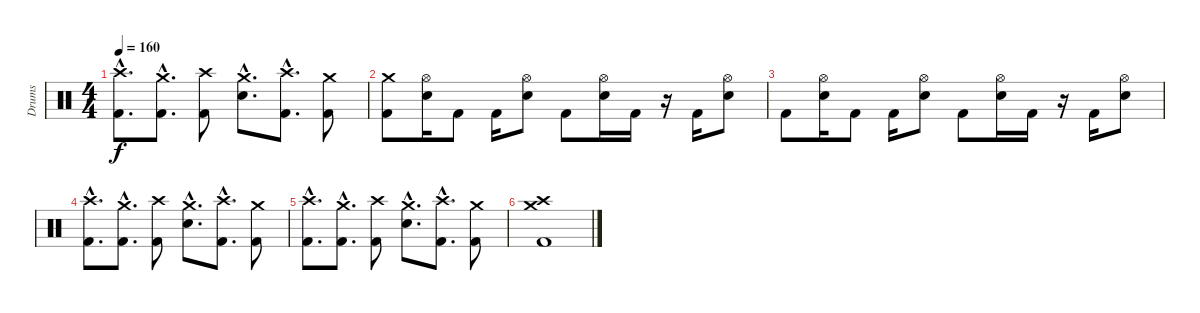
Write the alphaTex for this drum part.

\track ("Drums" "Drums") {instrument percussion}
\staff {score}
\articulation defaults
\ts (4 4)
\tempo 160
\clef neutral
\ks c
("Kick (hit) 2"{hac} "Crash high (hit)"{hac}).8{d dy f} ("Kick (hit) 2"{hac} "Crash medium (hit)"{hac}).8{d} ("Kick (hit) 2" "Crash high (hit)").8 ("Electric Snare (hit)"{hac} "Crash medium (hit)"{hac}).8{d} ("Kick (hit) 2"{hac} "Crash high (hit)"{hac}).8{d} ("Kick (hit) 2" "Crash medium (hit)").8 |
("Kick (hit) 2" "Crash medium (hit)").8 ("Electric Snare (hit)" "Hi-Hat (open)").16 "Kick (hit) 2".8 "Kick (hit) 2".16 ("Electric Snare (hit)" "Hi-Hat (open)").8 "Kick (hit) 2".8 ("Electric Snare (hit)" "Hi-Hat (open)").16 "Kick (hit) 2".16 r.16 "Kick (hit) 2".16 ("Electric Snare (hit)" "Hi-Hat (open)").8 |
"Kick (hit) 2".8 ("Electric Snare (hit)" "Hi-Hat (open)").16 "Kick (hit) 2".8 "Kick (hit) 2".16 ("Electric Snare (hit)" "Hi-Hat (open)").8 "Kick (hit) 2".8 ("Electric Snare (hit)" "Hi-Hat (open)").16 "Kick (hit) 2".16 r.16 "Kick (hit) 2".16 ("Electric Snare (hit)" "Hi-Hat (open)").8 |
("Kick (hit) 2"{hac} "Crash high (hit)"{hac}).8{d} ("Kick (hit) 2"{hac} "Crash medium (hit)"{hac}).8{d} ("Kick (hit) 2" "Crash high (hit)").8 ("Electric Snare (hit)"{hac} "Crash medium (hit)"{hac}).8{d} ("Kick (hit) 2"{hac} "Crash high (hit)"{hac}).8{d} ("Kick (hit) 2" "Crash medium (hit)").8 |
("Kick (hit) 2"{hac} "Crash high (hit)"{hac}).8{d} ("Kick (hit) 2"{hac} "Crash medium (hit)"{hac}).8{d} ("Kick (hit) 2" "Crash high (hit)").8 ("Electric Snare (hit)"{hac} "Crash medium (hit)"{hac}).8{d} ("Kick (hit) 2"{hac} "Crash high (hit)"{hac}).8{d} ("Kick (hit) 2" "Crash medium (hit)").8 |
("Kick (hit) 2" "Crash medium (hit)" "Crash high (hit)").1
